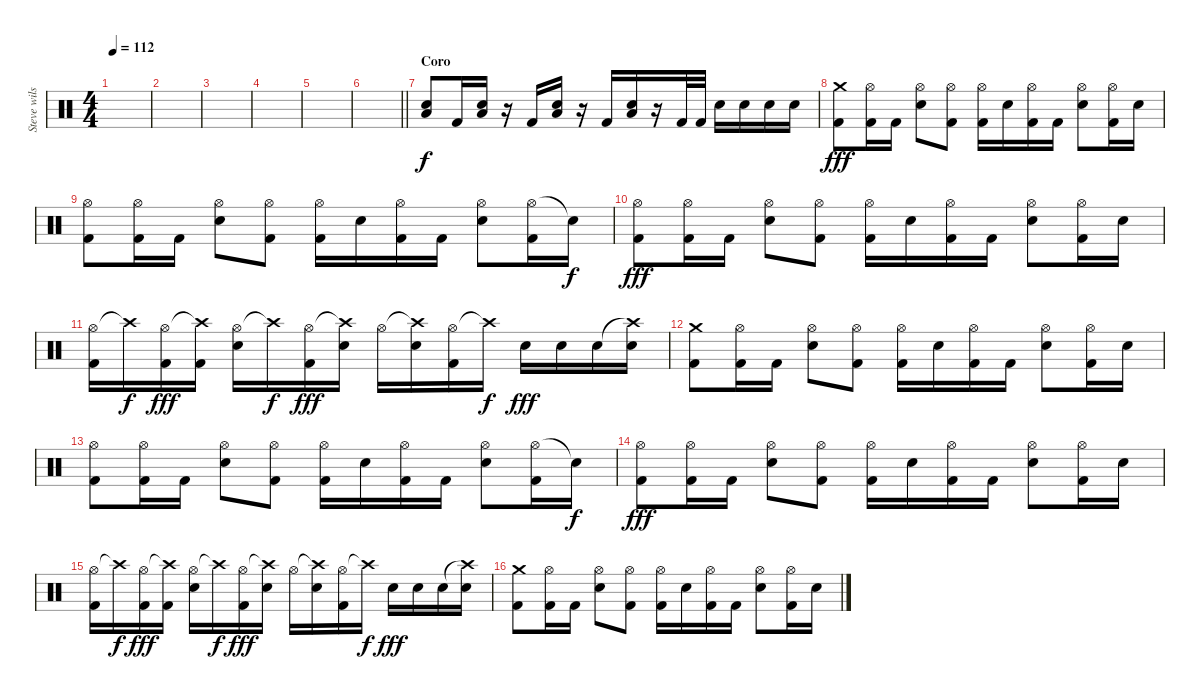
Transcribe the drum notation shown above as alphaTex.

\track ("Steve wilson" "Steve wils") {instrument percussion}
\staff {score}
\articulation defaults
\ts (4 4)
\tempo 112
\clef neutral
\ks c
|
|
|
|
|
\barLineRight lightlight
|
\section ("" "Coro")
("Low Tom (hit)" "Electric Snare (hit)").8{dy f} "Kick (hit) 2".16 ("Low Tom (hit)" "Electric Snare (hit)").16 r.16 "Kick (hit) 2".16 ("Low Tom (hit)" "Electric Snare (hit)").16 r.16 "Kick (hit) 2".16 ("Low Tom (hit)" "Electric Snare (hit)").16 r.16 "Kick (hit) 2".32 "Kick (hit) 2".32 "Electric Snare (hit)".16 "Electric Snare (hit)".16 "Electric Snare (hit)".16 "Electric Snare (hit)".16 |
("Crash medium (hit)" "Kick (hit) 2").8{dy fff} ("Hi-Hat (open)" "Kick (hit) 2").16 "Kick (hit) 2".16 ("Hi-Hat (open)" "Electric Snare (hit)").8 ("Hi-Hat (open)" "Kick (hit) 2").8 ("Hi-Hat (open)" "Kick (hit) 2").16 "Electric Snare (hit)".16 ("Hi-Hat (open)" "Kick (hit) 2").16 "Kick (hit) 2".16 ("Hi-Hat (open)" "Electric Snare (hit)").8 ("Hi-Hat (open)" "Kick (hit) 2").16 "Electric Snare (hit)".16 |
("Hi-Hat (open)" "Kick (hit) 2").8 ("Hi-Hat (open)" "Kick (hit) 2").16 "Kick (hit) 2".16 ("Hi-Hat (open)" "Electric Snare (hit)").8 ("Hi-Hat (open)" "Kick (hit) 2").8 ("Hi-Hat (open)" "Kick (hit) 2").16 "Electric Snare (hit)".16 ("Hi-Hat (open)" "Kick (hit) 2").16 "Kick (hit) 2".16 ("Hi-Hat (open)" "Electric Snare (hit)").8 ("Hi-Hat (open)" "Kick (hit) 2").16 "Snare (hit)"{t}.16{dy f} |
("Hi-Hat (open)" "Kick (hit) 2").8{dy fff} ("Hi-Hat (open)" "Kick (hit) 2").16 "Kick (hit) 2".16 ("Hi-Hat (open)" "Electric Snare (hit)").8 ("Hi-Hat (open)" "Kick (hit) 2").8 ("Hi-Hat (open)" "Kick (hit) 2").16 "Electric Snare (hit)".16 ("Hi-Hat (open)" "Kick (hit) 2").16 "Kick (hit) 2".16 ("Hi-Hat (open)" "Electric Snare (hit)").8 ("Hi-Hat (open)" "Kick (hit) 2").16 "Electric Snare (hit)".16 |
("Hi-Hat (open)" "Kick (hit) 2").16 "Crash high (hit)"{t}.16{dy f} ("Hi-Hat (open)" "Kick (hit) 2").16{dy fff} ("Crash high (hit)"{t} "Kick (hit) 2").16 ("Hi-Hat (open)" "Electric Snare (hit)").16 "Crash high (hit)"{t}.16{dy f} ("Hi-Hat (open)" "Kick (hit) 2").16{dy fff} ("Crash high (hit)"{t} "Electric Snare (hit)").16 "Hi-Hat (open)".16 ("Crash high (hit)"{t} "Electric Snare (hit)").16 ("Hi-Hat (open)" "Kick (hit) 2").16 "Crash high (hit)"{t}.16{dy f} "Electric Snare (hit)".16{dy fff} "Electric Snare (hit)".16 "Electric Snare (hit)".16 ("Crash high (hit)"{t} "Electric Snare (hit)").16 |
("Crash medium (hit)" "Kick (hit) 2").8 ("Hi-Hat (open)" "Kick (hit) 2").16 "Kick (hit) 2".16 ("Hi-Hat (open)" "Electric Snare (hit)").8 ("Hi-Hat (open)" "Kick (hit) 2").8 ("Hi-Hat (open)" "Kick (hit) 2").16 "Electric Snare (hit)".16 ("Hi-Hat (open)" "Kick (hit) 2").16 "Kick (hit) 2".16 ("Hi-Hat (open)" "Electric Snare (hit)").8 ("Hi-Hat (open)" "Kick (hit) 2").16 "Electric Snare (hit)".16 |
("Hi-Hat (open)" "Kick (hit) 2").8 ("Hi-Hat (open)" "Kick (hit) 2").16 "Kick (hit) 2".16 ("Hi-Hat (open)" "Electric Snare (hit)").8 ("Hi-Hat (open)" "Kick (hit) 2").8 ("Hi-Hat (open)" "Kick (hit) 2").16 "Electric Snare (hit)".16 ("Hi-Hat (open)" "Kick (hit) 2").16 "Kick (hit) 2".16 ("Hi-Hat (open)" "Electric Snare (hit)").8 ("Hi-Hat (open)" "Kick (hit) 2").16 "Snare (hit)"{t}.16{dy f} |
("Hi-Hat (open)" "Kick (hit) 2").8{dy fff} ("Hi-Hat (open)" "Kick (hit) 2").16 "Kick (hit) 2".16 ("Hi-Hat (open)" "Electric Snare (hit)").8 ("Hi-Hat (open)" "Kick (hit) 2").8 ("Hi-Hat (open)" "Kick (hit) 2").16 "Electric Snare (hit)".16 ("Hi-Hat (open)" "Kick (hit) 2").16 "Kick (hit) 2".16 ("Hi-Hat (open)" "Electric Snare (hit)").8 ("Hi-Hat (open)" "Kick (hit) 2").16 "Electric Snare (hit)".16 |
("Hi-Hat (open)" "Kick (hit) 2").16 "Crash high (hit)"{t}.16{dy f} ("Hi-Hat (open)" "Kick (hit) 2").16{dy fff} ("Crash high (hit)"{t} "Kick (hit) 2").16 ("Hi-Hat (open)" "Electric Snare (hit)").16 "Crash high (hit)"{t}.16{dy f} ("Hi-Hat (open)" "Kick (hit) 2").16{dy fff} ("Crash high (hit)"{t} "Electric Snare (hit)").16 "Hi-Hat (open)".16 ("Crash high (hit)"{t} "Electric Snare (hit)").16 ("Hi-Hat (open)" "Kick (hit) 2").16 "Crash high (hit)"{t}.16{dy f} "Electric Snare (hit)".16{dy fff} "Electric Snare (hit)".16 "Electric Snare (hit)".16 ("Crash high (hit)"{t} "Electric Snare (hit)").16 |
("Crash medium (hit)" "Kick (hit) 2").8 ("Hi-Hat (open)" "Kick (hit) 2").16 "Kick (hit) 2".16 ("Hi-Hat (open)" "Electric Snare (hit)").8 ("Hi-Hat (open)" "Kick (hit) 2").8 ("Hi-Hat (open)" "Kick (hit) 2").16 "Electric Snare (hit)".16 ("Hi-Hat (open)" "Kick (hit) 2").16 "Kick (hit) 2".16 ("Hi-Hat (open)" "Electric Snare (hit)").8 ("Hi-Hat (open)" "Kick (hit) 2").16 "Electric Snare (hit)".16
